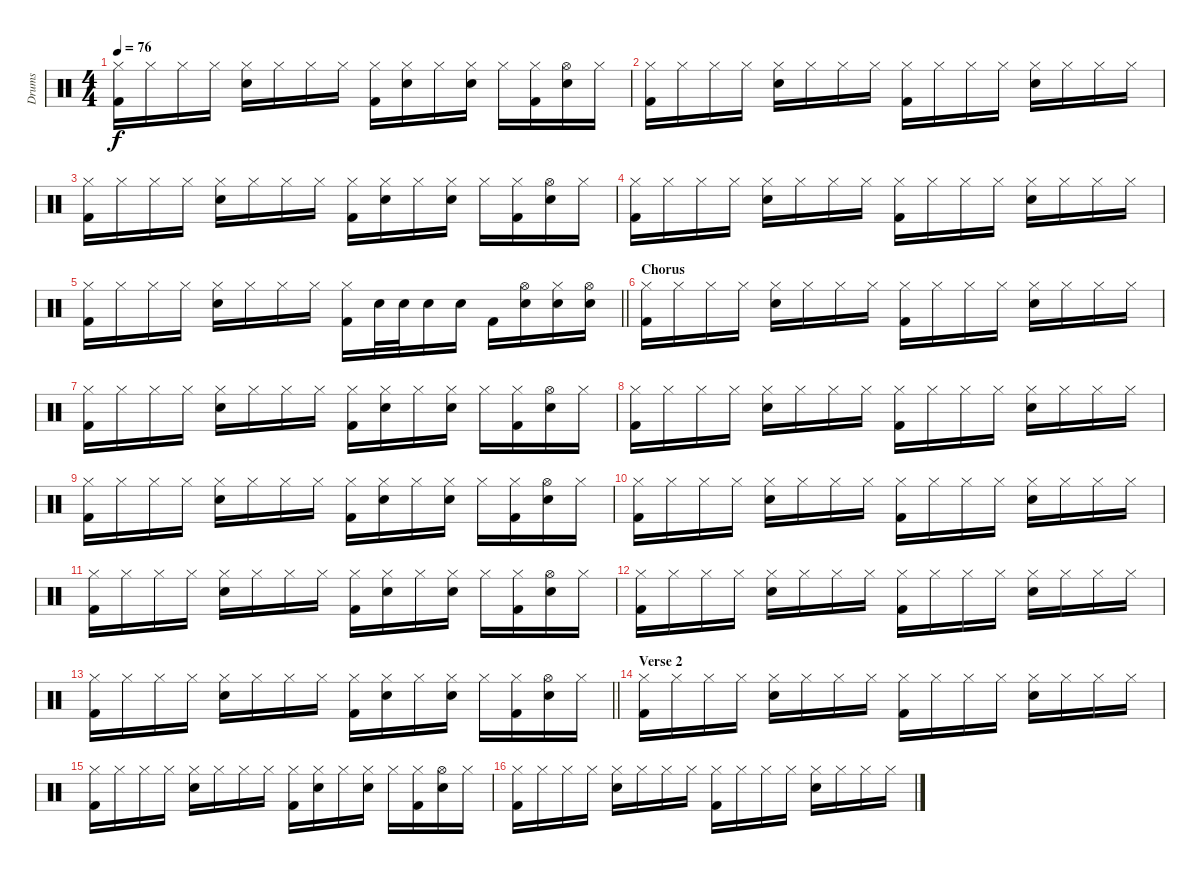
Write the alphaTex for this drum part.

\track ("Drums" "Drums") {instrument percussion}
\staff {score}
\articulation defaults
\ts (4 4)
\tempo 76
\clef neutral
\ks c
("Hi-Hat (closed)" "Kick (hit) 2").16{dy f} "Hi-Hat (closed)".16 "Hi-Hat (closed)".16 "Hi-Hat (closed)".16 ("Hi-Hat (closed)" "Snare (hit) 2").16 "Hi-Hat (closed)".16 "Hi-Hat (closed)".16 "Hi-Hat (closed)".16 ("Hi-Hat (closed)" "Kick (hit) 2").16 ("Hi-Hat (closed)" "Snare (hit) 2").16 "Hi-Hat (closed)".16 ("Hi-Hat (closed)" "Snare (hit) 2").16 "Hi-Hat (closed)".16 ("Hi-Hat (closed)" "Kick (hit) 2").16 ("Hi-Hat (open)" "Snare (hit) 2").16 "Hi-Hat (closed)".16 |
("Hi-Hat (closed)" "Kick (hit) 2").16 "Hi-Hat (closed)".16 "Hi-Hat (closed)".16 "Hi-Hat (closed)".16 ("Hi-Hat (closed)" "Snare (hit) 2").16 "Hi-Hat (closed)".16 "Hi-Hat (closed)".16 "Hi-Hat (closed)".16 ("Hi-Hat (closed)" "Kick (hit) 2").16 "Hi-Hat (closed)".16 "Hi-Hat (closed)".16 "Hi-Hat (closed)".16 ("Hi-Hat (closed)" "Snare (hit) 2").16 "Hi-Hat (closed)".16 "Hi-Hat (closed)".16 "Hi-Hat (closed)".16 |
("Hi-Hat (closed)" "Kick (hit) 2").16 "Hi-Hat (closed)".16 "Hi-Hat (closed)".16 "Hi-Hat (closed)".16 ("Hi-Hat (closed)" "Snare (hit) 2").16 "Hi-Hat (closed)".16 "Hi-Hat (closed)".16 "Hi-Hat (closed)".16 ("Hi-Hat (closed)" "Kick (hit) 2").16 ("Hi-Hat (closed)" "Snare (hit) 2").16 "Hi-Hat (closed)".16 ("Hi-Hat (closed)" "Snare (hit) 2").16 "Hi-Hat (closed)".16 ("Hi-Hat (closed)" "Kick (hit) 2").16 ("Hi-Hat (open)" "Snare (hit) 2").16 "Hi-Hat (closed)".16 |
("Hi-Hat (closed)" "Kick (hit) 2").16 "Hi-Hat (closed)".16 "Hi-Hat (closed)".16 "Hi-Hat (closed)".16 ("Hi-Hat (closed)" "Snare (hit) 2").16 "Hi-Hat (closed)".16 "Hi-Hat (closed)".16 "Hi-Hat (closed)".16 ("Hi-Hat (closed)" "Kick (hit) 2").16 "Hi-Hat (closed)".16 "Hi-Hat (closed)".16 "Hi-Hat (closed)".16 ("Hi-Hat (closed)" "Snare (hit) 2").16 "Hi-Hat (closed)".16 "Hi-Hat (closed)".16 "Hi-Hat (closed)".16 |
\barLineRight lightlight
("Hi-Hat (closed)" "Kick (hit) 2").16 "Hi-Hat (closed)".16 "Hi-Hat (closed)".16 "Hi-Hat (closed)".16 ("Hi-Hat (closed)" "Snare (hit) 2").16 "Hi-Hat (closed)".16 "Hi-Hat (closed)".16 "Hi-Hat (closed)".16 ("Hi-Hat (closed)" "Kick (hit) 2").16 "Snare (hit) 2".32 "Snare (hit) 2".32 "Snare (hit) 2".16 "Snare (hit) 2".16 "Kick (hit) 2".16 ("Hi-Hat (open)" "Snare (hit) 2").16 ("Hi-Hat (closed)" "Snare (hit) 2").16 ("Hi-Hat (open)" "Snare (hit) 2").16 |
\section ("" "Chorus")
("Hi-Hat (closed)" "Kick (hit) 2").16 "Hi-Hat (closed)".16 "Hi-Hat (closed)".16 "Hi-Hat (closed)".16 ("Hi-Hat (closed)" "Snare (hit) 2").16 "Hi-Hat (closed)".16 "Hi-Hat (closed)".16 "Hi-Hat (closed)".16 ("Hi-Hat (closed)" "Kick (hit) 2").16 "Hi-Hat (closed)".16 "Hi-Hat (closed)".16 "Hi-Hat (closed)".16 ("Hi-Hat (closed)" "Snare (hit) 2").16 "Hi-Hat (closed)".16 "Hi-Hat (closed)".16 "Hi-Hat (closed)".16 |
("Hi-Hat (closed)" "Kick (hit) 2").16 "Hi-Hat (closed)".16 "Hi-Hat (closed)".16 "Hi-Hat (closed)".16 ("Hi-Hat (closed)" "Snare (hit) 2").16 "Hi-Hat (closed)".16 "Hi-Hat (closed)".16 "Hi-Hat (closed)".16 ("Hi-Hat (closed)" "Kick (hit) 2").16 ("Hi-Hat (closed)" "Snare (hit) 2").16 "Hi-Hat (closed)".16 ("Hi-Hat (closed)" "Snare (hit) 2").16 "Hi-Hat (closed)".16 ("Hi-Hat (closed)" "Kick (hit) 2").16 ("Hi-Hat (open)" "Snare (hit) 2").16 "Hi-Hat (closed)".16 |
("Hi-Hat (closed)" "Kick (hit) 2").16 "Hi-Hat (closed)".16 "Hi-Hat (closed)".16 "Hi-Hat (closed)".16 ("Hi-Hat (closed)" "Snare (hit) 2").16 "Hi-Hat (closed)".16 "Hi-Hat (closed)".16 "Hi-Hat (closed)".16 ("Hi-Hat (closed)" "Kick (hit) 2").16 "Hi-Hat (closed)".16 "Hi-Hat (closed)".16 "Hi-Hat (closed)".16 ("Hi-Hat (closed)" "Snare (hit) 2").16 "Hi-Hat (closed)".16 "Hi-Hat (closed)".16 "Hi-Hat (closed)".16 |
("Hi-Hat (closed)" "Kick (hit) 2").16 "Hi-Hat (closed)".16 "Hi-Hat (closed)".16 "Hi-Hat (closed)".16 ("Hi-Hat (closed)" "Snare (hit) 2").16 "Hi-Hat (closed)".16 "Hi-Hat (closed)".16 "Hi-Hat (closed)".16 ("Hi-Hat (closed)" "Kick (hit) 2").16 ("Hi-Hat (closed)" "Snare (hit) 2").16 "Hi-Hat (closed)".16 ("Hi-Hat (closed)" "Snare (hit) 2").16 "Hi-Hat (closed)".16 ("Hi-Hat (closed)" "Kick (hit) 2").16 ("Hi-Hat (open)" "Snare (hit) 2").16 "Hi-Hat (closed)".16 |
("Hi-Hat (closed)" "Kick (hit) 2").16 "Hi-Hat (closed)".16 "Hi-Hat (closed)".16 "Hi-Hat (closed)".16 ("Hi-Hat (closed)" "Snare (hit) 2").16 "Hi-Hat (closed)".16 "Hi-Hat (closed)".16 "Hi-Hat (closed)".16 ("Hi-Hat (closed)" "Kick (hit) 2").16 "Hi-Hat (closed)".16 "Hi-Hat (closed)".16 "Hi-Hat (closed)".16 ("Hi-Hat (closed)" "Snare (hit) 2").16 "Hi-Hat (closed)".16 "Hi-Hat (closed)".16 "Hi-Hat (closed)".16 |
("Hi-Hat (closed)" "Kick (hit) 2").16 "Hi-Hat (closed)".16 "Hi-Hat (closed)".16 "Hi-Hat (closed)".16 ("Hi-Hat (closed)" "Snare (hit) 2").16 "Hi-Hat (closed)".16 "Hi-Hat (closed)".16 "Hi-Hat (closed)".16 ("Hi-Hat (closed)" "Kick (hit) 2").16 ("Hi-Hat (closed)" "Snare (hit) 2").16 "Hi-Hat (closed)".16 ("Hi-Hat (closed)" "Snare (hit) 2").16 "Hi-Hat (closed)".16 ("Hi-Hat (closed)" "Kick (hit) 2").16 ("Hi-Hat (open)" "Snare (hit) 2").16 "Hi-Hat (closed)".16 |
("Hi-Hat (closed)" "Kick (hit) 2").16 "Hi-Hat (closed)".16 "Hi-Hat (closed)".16 "Hi-Hat (closed)".16 ("Hi-Hat (closed)" "Snare (hit) 2").16 "Hi-Hat (closed)".16 "Hi-Hat (closed)".16 "Hi-Hat (closed)".16 ("Hi-Hat (closed)" "Kick (hit) 2").16 "Hi-Hat (closed)".16 "Hi-Hat (closed)".16 "Hi-Hat (closed)".16 ("Hi-Hat (closed)" "Snare (hit) 2").16 "Hi-Hat (closed)".16 "Hi-Hat (closed)".16 "Hi-Hat (closed)".16 |
\barLineRight lightlight
("Hi-Hat (closed)" "Kick (hit) 2").16 "Hi-Hat (closed)".16 "Hi-Hat (closed)".16 "Hi-Hat (closed)".16 ("Hi-Hat (closed)" "Snare (hit) 2").16 "Hi-Hat (closed)".16 "Hi-Hat (closed)".16 "Hi-Hat (closed)".16 ("Hi-Hat (closed)" "Kick (hit) 2").16 ("Hi-Hat (closed)" "Snare (hit) 2").16 "Hi-Hat (closed)".16 ("Hi-Hat (closed)" "Snare (hit) 2").16 "Hi-Hat (closed)".16 ("Hi-Hat (closed)" "Kick (hit) 2").16 ("Hi-Hat (open)" "Snare (hit) 2").16 "Hi-Hat (closed)".16 |
\section ("" "Verse 2")
("Hi-Hat (closed)" "Kick (hit) 2").16 "Hi-Hat (closed)".16 "Hi-Hat (closed)".16 "Hi-Hat (closed)".16 ("Hi-Hat (closed)" "Snare (hit) 2").16 "Hi-Hat (closed)".16 "Hi-Hat (closed)".16 "Hi-Hat (closed)".16 ("Hi-Hat (closed)" "Kick (hit) 2").16 "Hi-Hat (closed)".16 "Hi-Hat (closed)".16 "Hi-Hat (closed)".16 ("Hi-Hat (closed)" "Snare (hit) 2").16 "Hi-Hat (closed)".16 "Hi-Hat (closed)".16 "Hi-Hat (closed)".16 |
("Hi-Hat (closed)" "Kick (hit) 2").16 "Hi-Hat (closed)".16 "Hi-Hat (closed)".16 "Hi-Hat (closed)".16 ("Hi-Hat (closed)" "Snare (hit) 2").16 "Hi-Hat (closed)".16 "Hi-Hat (closed)".16 "Hi-Hat (closed)".16 ("Hi-Hat (closed)" "Kick (hit) 2").16 ("Hi-Hat (closed)" "Snare (hit) 2").16 "Hi-Hat (closed)".16 ("Hi-Hat (closed)" "Snare (hit) 2").16 "Hi-Hat (closed)".16 ("Hi-Hat (closed)" "Kick (hit) 2").16 ("Hi-Hat (open)" "Snare (hit) 2").16 "Hi-Hat (closed)".16 |
("Hi-Hat (closed)" "Kick (hit) 2").16 "Hi-Hat (closed)".16 "Hi-Hat (closed)".16 "Hi-Hat (closed)".16 ("Hi-Hat (closed)" "Snare (hit) 2").16 "Hi-Hat (closed)".16 "Hi-Hat (closed)".16 "Hi-Hat (closed)".16 ("Hi-Hat (closed)" "Kick (hit) 2").16 "Hi-Hat (closed)".16 "Hi-Hat (closed)".16 "Hi-Hat (closed)".16 ("Hi-Hat (closed)" "Snare (hit) 2").16 "Hi-Hat (closed)".16 "Hi-Hat (closed)".16 "Hi-Hat (closed)".16
